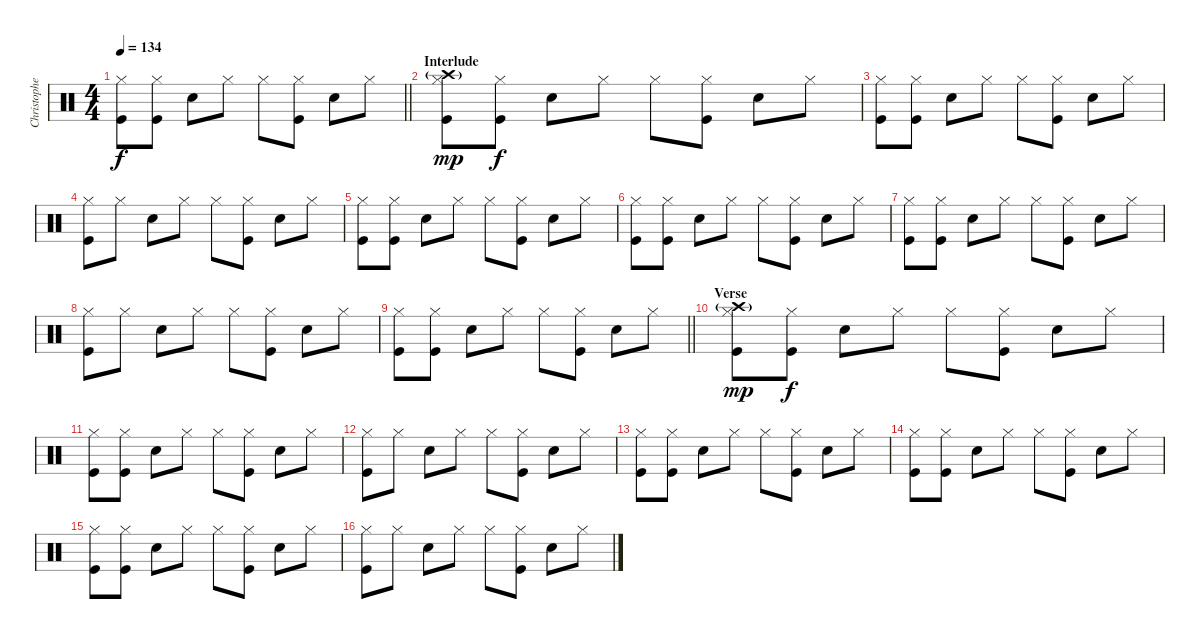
\track ("Christopher - Drums" "Christophe") {instrument percussion}
\staff {score}
\articulation defaults
\ts (4 4)
\tempo 134
\clef neutral
\barLineRight lightlight
\ks c
("Hi-Hat (closed)" "Kick (hit)").8{dy f} ("Hi-Hat (closed)" "Kick (hit)").8 "Snare (hit) 2".8 "Hi-Hat (closed)".8 "Hi-Hat (closed)".8 ("Hi-Hat (closed)" "Kick (hit)").8 "Snare (hit) 2".8 "Hi-Hat (closed)".8 |
\section ("" "Interlude")
("Crash high (hit)"{g} "Hi-Hat (closed)" "Kick (hit)").8{dy mp} ("Hi-Hat (closed)" "Kick (hit)").8{dy f} "Snare (hit) 2".8 "Hi-Hat (closed)".8 "Hi-Hat (closed)".8 ("Hi-Hat (closed)" "Kick (hit)").8 "Snare (hit) 2".8 "Hi-Hat (closed)".8 |
("Hi-Hat (closed)" "Kick (hit)").8 ("Hi-Hat (closed)" "Kick (hit)").8 "Snare (hit) 2".8 "Hi-Hat (closed)".8 "Hi-Hat (closed)".8 ("Hi-Hat (closed)" "Kick (hit)").8 "Snare (hit) 2".8 "Hi-Hat (closed)".8 |
("Hi-Hat (closed)" "Kick (hit)").8 "Hi-Hat (closed)".8 "Snare (hit) 2".8 "Hi-Hat (closed)".8 "Hi-Hat (closed)".8 ("Hi-Hat (closed)" "Kick (hit)").8 "Snare (hit) 2".8 "Hi-Hat (closed)".8 |
("Hi-Hat (closed)" "Kick (hit)").8 ("Hi-Hat (closed)" "Kick (hit)").8 "Snare (hit) 2".8 "Hi-Hat (closed)".8 "Hi-Hat (closed)".8 ("Hi-Hat (closed)" "Kick (hit)").8 "Snare (hit) 2".8 "Hi-Hat (closed)".8 |
("Hi-Hat (closed)" "Kick (hit)").8 ("Hi-Hat (closed)" "Kick (hit)").8 "Snare (hit) 2".8 "Hi-Hat (closed)".8 "Hi-Hat (closed)".8 ("Hi-Hat (closed)" "Kick (hit)").8 "Snare (hit) 2".8 "Hi-Hat (closed)".8 |
("Hi-Hat (closed)" "Kick (hit)").8 ("Hi-Hat (closed)" "Kick (hit)").8 "Snare (hit) 2".8 "Hi-Hat (closed)".8 "Hi-Hat (closed)".8 ("Hi-Hat (closed)" "Kick (hit)").8 "Snare (hit) 2".8 "Hi-Hat (closed)".8 |
("Hi-Hat (closed)" "Kick (hit)").8 "Hi-Hat (closed)".8 "Snare (hit) 2".8 "Hi-Hat (closed)".8 "Hi-Hat (closed)".8 ("Hi-Hat (closed)" "Kick (hit)").8 "Snare (hit) 2".8 "Hi-Hat (closed)".8 |
\barLineRight lightlight
("Hi-Hat (closed)" "Kick (hit)").8 ("Hi-Hat (closed)" "Kick (hit)").8 "Snare (hit) 2".8 "Hi-Hat (closed)".8 "Hi-Hat (closed)".8 ("Hi-Hat (closed)" "Kick (hit)").8 "Snare (hit) 2".8 "Hi-Hat (closed)".8 |
\section ("" "Verse")
("Crash high (hit)"{g} "Hi-Hat (closed)" "Kick (hit)").8{dy mp} ("Hi-Hat (closed)" "Kick (hit)").8{dy f} "Snare (hit) 2".8 "Hi-Hat (closed)".8 "Hi-Hat (closed)".8 ("Hi-Hat (closed)" "Kick (hit)").8 "Snare (hit) 2".8 "Hi-Hat (closed)".8 |
("Hi-Hat (closed)" "Kick (hit)").8 ("Hi-Hat (closed)" "Kick (hit)").8 "Snare (hit) 2".8 "Hi-Hat (closed)".8 "Hi-Hat (closed)".8 ("Hi-Hat (closed)" "Kick (hit)").8 "Snare (hit) 2".8 "Hi-Hat (closed)".8 |
("Hi-Hat (closed)" "Kick (hit)").8 "Hi-Hat (closed)".8 "Snare (hit) 2".8 "Hi-Hat (closed)".8 "Hi-Hat (closed)".8 ("Hi-Hat (closed)" "Kick (hit)").8 "Snare (hit) 2".8 "Hi-Hat (closed)".8 |
("Hi-Hat (closed)" "Kick (hit)").8 ("Hi-Hat (closed)" "Kick (hit)").8 "Snare (hit) 2".8 "Hi-Hat (closed)".8 "Hi-Hat (closed)".8 ("Hi-Hat (closed)" "Kick (hit)").8 "Snare (hit) 2".8 "Hi-Hat (closed)".8 |
("Hi-Hat (closed)" "Kick (hit)").8 ("Hi-Hat (closed)" "Kick (hit)").8 "Snare (hit) 2".8 "Hi-Hat (closed)".8 "Hi-Hat (closed)".8 ("Hi-Hat (closed)" "Kick (hit)").8 "Snare (hit) 2".8 "Hi-Hat (closed)".8 |
("Hi-Hat (closed)" "Kick (hit)").8 ("Hi-Hat (closed)" "Kick (hit)").8 "Snare (hit) 2".8 "Hi-Hat (closed)".8 "Hi-Hat (closed)".8 ("Hi-Hat (closed)" "Kick (hit)").8 "Snare (hit) 2".8 "Hi-Hat (closed)".8 |
("Hi-Hat (closed)" "Kick (hit)").8 "Hi-Hat (closed)".8 "Snare (hit) 2".8 "Hi-Hat (closed)".8 "Hi-Hat (closed)".8 ("Hi-Hat (closed)" "Kick (hit)").8 "Snare (hit) 2".8 "Hi-Hat (closed)".8
